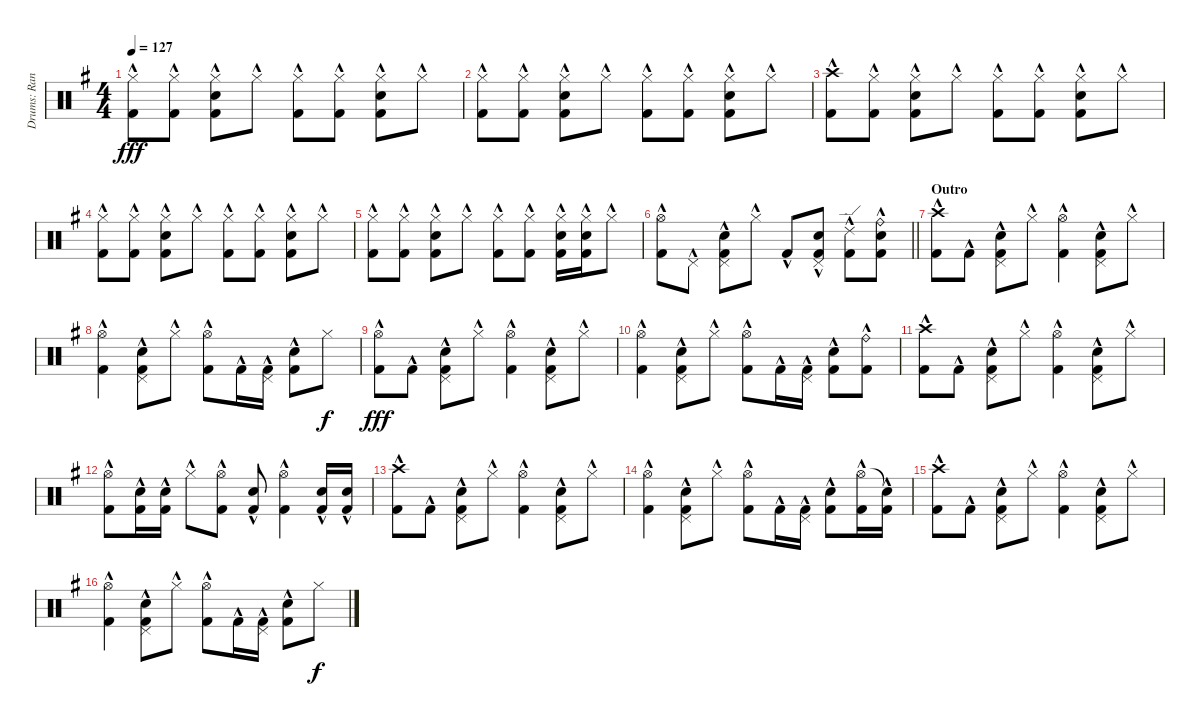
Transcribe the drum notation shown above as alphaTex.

\track ("Drums: Randy" "Drums: Ran") {instrument percussion}
\staff {score}
\articulation defaults
\ts (4 4)
\tempo 127
\clef neutral
\ks g
("Hi-Hat (closed)"{hac} "Kick (hit) 2"{hac}).8{dy fff} ("Hi-Hat (closed)"{hac} "Kick (hit) 2"{hac}).8 ("Hi-Hat (closed)"{hac} "Snare (hit) 2"{hac} "Kick (hit) 2"{hac}).8 "Hi-Hat (closed)"{hac}.8 ("Hi-Hat (closed)"{hac} "Kick (hit) 2"{hac}).8 ("Hi-Hat (closed)"{hac} "Kick (hit) 2"{hac}).8 ("Hi-Hat (closed)"{hac} "Snare (hit) 2"{hac} "Kick (hit) 2"{hac}).8 "Hi-Hat (closed)"{hac}.8 |
("Hi-Hat (closed)"{hac} "Kick (hit) 2"{hac}).8 ("Hi-Hat (closed)"{hac} "Kick (hit) 2"{hac}).8 ("Hi-Hat (closed)"{hac} "Snare (hit) 2"{hac} "Kick (hit) 2"{hac}).8 "Hi-Hat (closed)"{hac}.8 ("Hi-Hat (closed)"{hac} "Kick (hit) 2"{hac}).8 ("Hi-Hat (closed)"{hac} "Kick (hit) 2"{hac}).8 ("Hi-Hat (closed)"{hac} "Snare (hit) 2"{hac} "Kick (hit) 2"{hac}).8 "Hi-Hat (closed)"{hac}.8 |
("Crash high (hit)"{hac} "Kick (hit) 2"{hac}).8 ("Hi-Hat (closed)"{hac} "Kick (hit) 2"{hac}).8 ("Hi-Hat (closed)"{hac} "Snare (hit) 2"{hac} "Kick (hit) 2"{hac}).8 "Hi-Hat (closed)"{hac}.8 ("Hi-Hat (closed)"{hac} "Kick (hit) 2"{hac}).8 ("Hi-Hat (closed)"{hac} "Kick (hit) 2"{hac}).8 ("Hi-Hat (closed)"{hac} "Snare (hit) 2"{hac} "Kick (hit) 2"{hac}).8 "Hi-Hat (closed)"{hac}.8 |
("Hi-Hat (closed)"{hac} "Kick (hit) 2"{hac}).8 ("Hi-Hat (closed)"{hac} "Kick (hit) 2"{hac}).8 ("Hi-Hat (closed)"{hac} "Snare (hit) 2"{hac} "Kick (hit) 2"{hac}).8 "Hi-Hat (closed)"{hac}.8 ("Hi-Hat (closed)"{hac} "Kick (hit) 2"{hac}).8 ("Hi-Hat (closed)"{hac} "Kick (hit) 2"{hac}).8 ("Hi-Hat (closed)"{hac} "Snare (hit) 2"{hac} "Kick (hit) 2"{hac}).8 "Hi-Hat (closed)"{hac}.8 |
("Hi-Hat (closed)"{hac} "Kick (hit) 2"{hac}).8 ("Hi-Hat (closed)"{hac} "Kick (hit) 2"{hac}).8 ("Hi-Hat (closed)"{hac} "Snare (hit) 2"{hac} "Kick (hit) 2"{hac}).8 "Hi-Hat (closed)"{hac}.8 ("Hi-Hat (closed)"{hac} "Kick (hit) 2"{hac}).8 ("Hi-Hat (closed)"{hac} "Kick (hit) 2"{hac}).8 ("Hi-Hat (closed)"{hac} "Snare (hit) 2"{hac} "Kick (hit) 2"{hac}).16 ("Hi-Hat (closed)"{hac} "Snare (hit) 2"{hac} "Kick (hit) 2"{hac}).16 "Hi-Hat (closed)"{hac}.8 |
\barLineRight lightlight
("Hi-Hat (open)"{hac} "Kick (hit) 2"{hac}).8 "Pedal Hi-Hat (hit)"{hac}.8 ("Pedal Hi-Hat (hit)"{hac} "Snare (hit) 2"{hac} "Kick (hit) 2"{hac}).8 "Hi-Hat (closed)"{hac}.8 "Kick (hit) 2"{hac}.8 ("Pedal Hi-Hat (hit)"{hac} "Snare (hit) 2"{hac} "Kick (hit) 2"{hac}).8 ("Ride (edge) 2"{hac} "Kick (hit) 2"{hac}).8 ("Ride (bell)"{hac} "Snare (hit) 2"{hac} "Kick (hit) 2"{hac}).8 |
\section ("" "Outro")
("Crash high (hit)"{hac} "Kick (hit) 2"{hac}).8 "Kick (hit) 2"{hac}.8 ("Pedal Hi-Hat (hit)"{hac} "Snare (hit) 2"{hac} "Kick (hit) 2"{hac}).8 "Hi-Hat (closed)"{hac}.8 ("Hi-Hat (open)"{hac} "Kick (hit) 2"{hac}).4 ("Pedal Hi-Hat (hit)"{hac} "Snare (hit) 2"{hac} "Kick (hit) 2"{hac}).8 "Hi-Hat (closed)"{hac}.8 |
("Hi-Hat (open)"{hac} "Kick (hit) 2"{hac}).4 ("Pedal Hi-Hat (hit)"{hac} "Snare (hit) 2"{hac} "Kick (hit) 2"{hac}).8 "Hi-Hat (closed)"{hac}.8 ("Hi-Hat (open)"{hac} "Kick (hit) 2"{hac}).8 "Kick (hit) 2"{hac}.16 ("Pedal Hi-Hat (hit)" "Kick (hit) 2"{hac}).16 ("Snare (hit) 2"{hac} "Kick (hit) 2"{hac}).8 "Hi-Hat (closed)".8{dy f} |
("Hi-Hat (open)" "Kick (hit) 2"{hac}).8{dy fff} "Kick (hit) 2"{hac}.8 ("Pedal Hi-Hat (hit)"{hac} "Snare (hit) 2"{hac} "Kick (hit) 2"{hac}).8 "Hi-Hat (closed)"{hac}.8 ("Hi-Hat (open)"{hac} "Kick (hit) 2"{hac}).4 ("Pedal Hi-Hat (hit)"{hac} "Snare (hit) 2"{hac} "Kick (hit) 2"{hac}).8 "Hi-Hat (closed)"{hac}.8 |
("Hi-Hat (open)"{hac} "Kick (hit) 2"{hac}).4 ("Pedal Hi-Hat (hit)"{hac} "Snare (hit) 2"{hac} "Kick (hit) 2"{hac}).8 "Hi-Hat (closed)"{hac}.8 ("Hi-Hat (open)"{hac} "Kick (hit) 2"{hac}).8 "Kick (hit) 2"{hac}.16 ("Pedal Hi-Hat (hit)" "Kick (hit) 2"{hac}).16 ("Snare (hit) 2"{hac} "Kick (hit) 2"{hac}).8 ("Ride (bell)"{hac} "Kick (hit) 2"{hac}).8 |
("Crash high (hit)"{hac} "Kick (hit) 2"{hac}).8 "Kick (hit) 2"{hac}.8 ("Pedal Hi-Hat (hit)"{hac} "Snare (hit) 2"{hac} "Kick (hit) 2"{hac}).8 "Hi-Hat (closed)"{hac}.8 ("Hi-Hat (open)"{hac} "Kick (hit) 2"{hac}).4 ("Pedal Hi-Hat (hit)"{hac} "Snare (hit) 2"{hac} "Kick (hit) 2"{hac}).8 "Hi-Hat (closed)"{hac}.8 |
("Hi-Hat (open)"{hac} "Kick (hit) 2"{hac}).8 ("Snare (hit) 2"{hac} "Kick (hit) 2"{hac}).16 ("Snare (hit) 2"{hac} "Kick (hit) 2"{hac}).16 "Hi-Hat (closed)"{hac}.8 ("Hi-Hat (open)"{hac} "Kick (hit) 2"{hac}).8 ("Snare (hit) 2"{hac} "Kick (hit) 2"{hac}).8 ("Hi-Hat (open)"{hac} "Kick (hit) 2"{hac}).4 ("Snare (hit) 2"{hac} "Kick (hit) 2"{hac}).16 ("Snare (hit) 2"{hac} "Kick (hit) 2"{hac}).16 |
("Crash high (hit)"{hac} "Kick (hit) 2"{hac}).8 "Kick (hit) 2"{hac}.8 ("Pedal Hi-Hat (hit)"{hac} "Snare (hit) 2"{hac} "Kick (hit) 2"{hac}).8 "Hi-Hat (closed)"{hac}.8 ("Hi-Hat (open)"{hac} "Kick (hit) 2"{hac}).4 ("Pedal Hi-Hat (hit)"{hac} "Snare (hit) 2"{hac} "Kick (hit) 2"{hac}).8 "Hi-Hat (closed)"{hac}.8 |
("Hi-Hat (open)"{hac} "Kick (hit) 2"{hac}).4 ("Pedal Hi-Hat (hit)"{hac} "Snare (hit) 2"{hac} "Kick (hit) 2"{hac}).8 "Hi-Hat (closed)"{hac}.8 ("Hi-Hat (open)"{hac} "Kick (hit) 2"{hac}).8 "Kick (hit) 2"{hac}.16 ("Pedal Hi-Hat (hit)" "Kick (hit) 2"{hac}).16 ("Snare (hit) 2"{hac} "Kick (hit) 2"{hac}).8 ("Hi-Hat (open)" "Kick (hit) 2"{hac}).16 ("Snare (hit)"{t} "Kick (hit) 2"{hac}).16 |
("Crash high (hit)"{hac} "Kick (hit) 2"{hac}).8 "Kick (hit) 2"{hac}.8 ("Pedal Hi-Hat (hit)"{hac} "Snare (hit) 2"{hac} "Kick (hit) 2"{hac}).8 "Hi-Hat (closed)"{hac}.8 ("Hi-Hat (open)"{hac} "Kick (hit) 2"{hac}).4 ("Pedal Hi-Hat (hit)"{hac} "Snare (hit) 2"{hac} "Kick (hit) 2"{hac}).8 "Hi-Hat (closed)"{hac}.8 |
("Hi-Hat (open)"{hac} "Kick (hit) 2"{hac}).4 ("Pedal Hi-Hat (hit)"{hac} "Snare (hit) 2"{hac} "Kick (hit) 2"{hac}).8 "Hi-Hat (closed)"{hac}.8 ("Hi-Hat (open)"{hac} "Kick (hit) 2"{hac}).8 "Kick (hit) 2"{hac}.16 ("Pedal Hi-Hat (hit)" "Kick (hit) 2"{hac}).16 ("Snare (hit) 2"{hac} "Kick (hit) 2"{hac}).8 "Hi-Hat (closed)".8{dy f}
